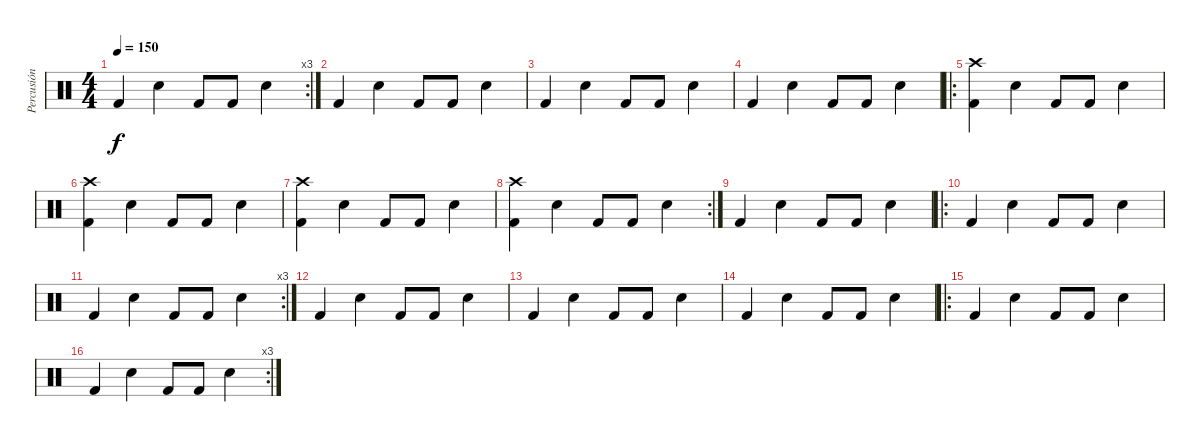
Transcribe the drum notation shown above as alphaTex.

\track ("Percusión" "Percusión") {instrument percussion}
\staff {score}
\articulation defaults
\rc 3
\ts (4 4)
\tempo 150
\clef neutral
\ks c "Kick (hit) 2".4{dy f} "Snare (hit) 2".4 "Kick (hit) 2".8 "Kick (hit) 2".8 "Snare (hit) 2".4
|
"Kick (hit) 2".4 "Snare (hit) 2".4 "Kick (hit) 2".8 "Kick (hit) 2".8 "Snare (hit) 2".4 |
"Kick (hit) 2".4 "Snare (hit) 2".4 "Kick (hit) 2".8 "Kick (hit) 2".8 "Snare (hit) 2".4 |
"Kick (hit) 2".4 "Snare (hit) 2".4 "Kick (hit) 2".8 "Kick (hit) 2".8 "Snare (hit) 2".4 |
\ro
("Kick (hit) 2" "Crash high (hit)").4 "Snare (hit) 2".4 "Kick (hit) 2".8 "Kick (hit) 2".8 "Snare (hit) 2".4 |
("Kick (hit) 2" "Crash high (hit)").4 "Snare (hit) 2".4 "Kick (hit) 2".8 "Kick (hit) 2".8 "Snare (hit) 2".4 |
("Kick (hit) 2" "Crash high (hit)").4 "Snare (hit) 2".4 "Kick (hit) 2".8 "Kick (hit) 2".8 "Snare (hit) 2".4 |
\rc 2
("Kick (hit) 2" "Crash high (hit)").4 "Snare (hit) 2".4 "Kick (hit) 2".8 "Kick (hit) 2".8 "Snare (hit) 2".4 |
"Kick (hit) 2".4 "Snare (hit) 2".4 "Kick (hit) 2".8 "Kick (hit) 2".8 "Snare (hit) 2".4 |
\ro "Kick (hit) 2".4 "Snare (hit) 2".4 "Kick (hit) 2".8 "Kick (hit) 2".8 "Snare (hit) 2".4
|
\rc 3 "Kick (hit) 2".4 "Snare (hit) 2".4 "Kick (hit) 2".8 "Kick (hit) 2".8 "Snare (hit) 2".4
|
"Kick (hit) 2".4 "Snare (hit) 2".4 "Kick (hit) 2".8 "Kick (hit) 2".8 "Snare (hit) 2".4 |
"Kick (hit) 2".4 "Snare (hit) 2".4 "Kick (hit) 2".8 "Kick (hit) 2".8 "Snare (hit) 2".4 |
"Kick (hit) 2".4 "Snare (hit) 2".4 "Kick (hit) 2".8 "Kick (hit) 2".8 "Snare (hit) 2".4 |
\ro "Kick (hit) 2".4 "Snare (hit) 2".4 "Kick (hit) 2".8 "Kick (hit) 2".8 "Snare (hit) 2".4
|
\rc 3 "Kick (hit) 2".4 "Snare (hit) 2".4 "Kick (hit) 2".8 "Kick (hit) 2".8 "Snare (hit) 2".4
